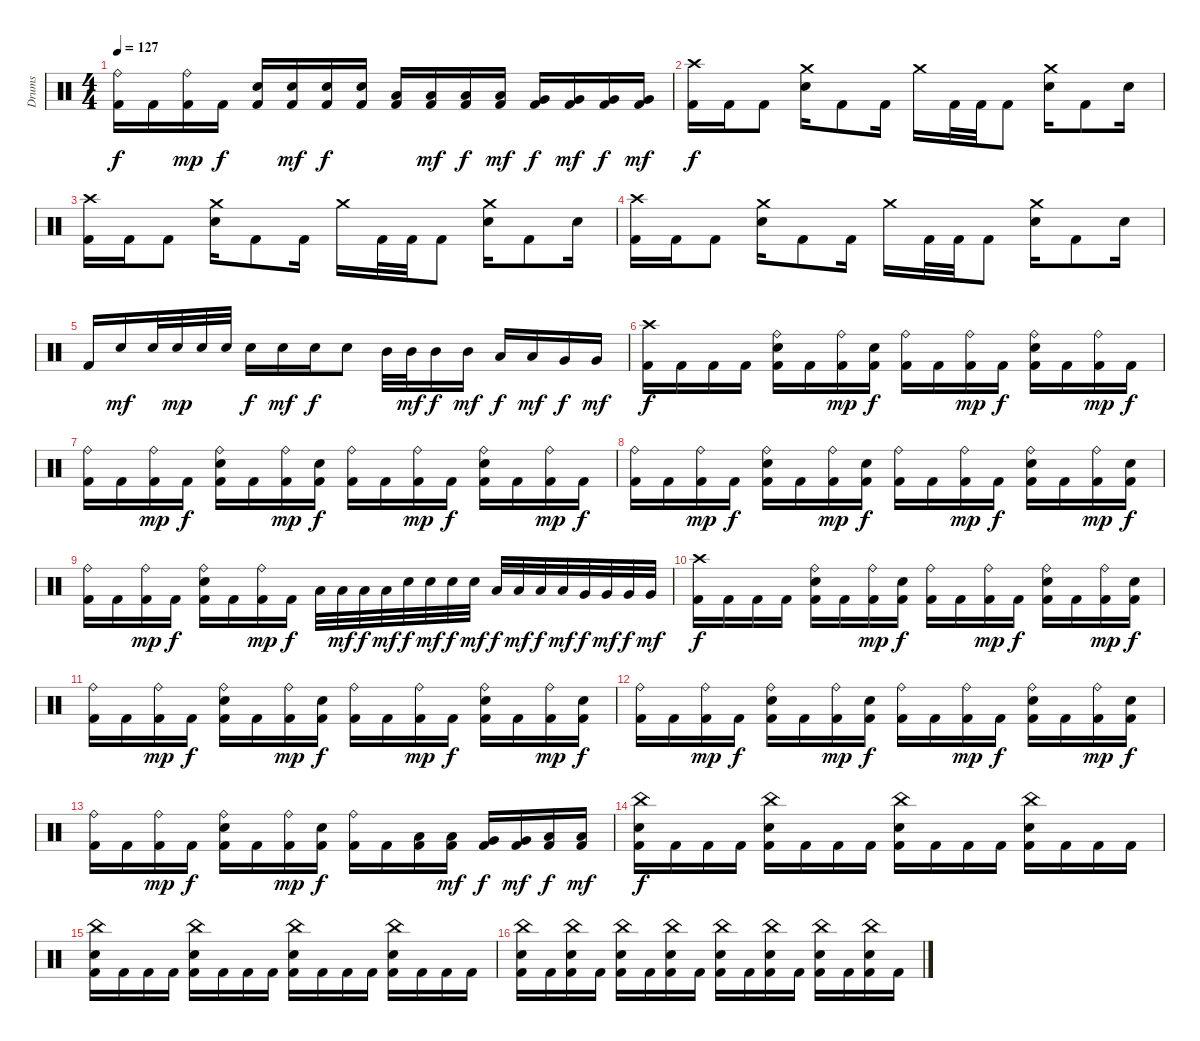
\track ("Drums" "Drums") {instrument percussion}
\staff {score}
\articulation defaults
\ts (4 4)
\tempo 127
\clef neutral
\ks c
("Kick (hit) 2" "Ride (bell)").16{dy f} "Kick (hit) 2".16 ("Kick (hit) 2" "Ride (bell)").16{dy mp} "Kick (hit) 2".16{dy f} ("Kick (hit) 2" "Electric Snare (hit)").16 ("Kick (hit) 2" "Electric Snare (hit)").16{dy mf} ("Kick (hit) 2" "Electric Snare (hit)").16{dy f} ("Kick (hit) 2" "Electric Snare (hit)").16 ("Kick (hit) 2" "Low Tom (hit)").16 ("Kick (hit) 2" "Low Tom (hit)").16{dy mf} ("Kick (hit) 2" "Low Tom (hit)").16{dy f} ("Kick (hit) 2" "Low Tom (hit)").16{dy mf} ("Kick (hit) 2" "Very Low Tom (hit)").16{dy f} ("Kick (hit) 2" "Very Low Tom (hit)").16{dy mf} ("Kick (hit) 2" "Very Low Tom (hit)").16{dy f} ("Kick (hit) 2" "Very Low Tom (hit)").16{dy mf} |
("Kick (hit) 2" "Crash high (hit)").16{dy f} "Kick (hit) 2".16 "Kick (hit) 2".8 ("Crash medium (hit)" "Electric Snare (hit)").16 "Kick (hit) 2".8 "Kick (hit) 2".16 "Crash medium (hit)".16 "Kick (hit) 2".32 "Kick (hit) 2".32 "Kick (hit) 2".8 ("Crash medium (hit)" "Electric Snare (hit)").16 "Kick (hit) 2".8 "Electric Snare (hit)".16 |
("Kick (hit) 2" "Crash high (hit)").16 "Kick (hit) 2".16 "Kick (hit) 2".8 ("Crash medium (hit)" "Electric Snare (hit)").16 "Kick (hit) 2".8 "Kick (hit) 2".16 "Crash medium (hit)".16 "Kick (hit) 2".32 "Kick (hit) 2".32 "Kick (hit) 2".8 ("Crash medium (hit)" "Electric Snare (hit)").16 "Kick (hit) 2".8 "Electric Snare (hit)".16 |
("Kick (hit) 2" "Crash high (hit)").16 "Kick (hit) 2".16 "Kick (hit) 2".8 ("Crash medium (hit)" "Electric Snare (hit)").16 "Kick (hit) 2".8 "Kick (hit) 2".16 "Crash medium (hit)".16 "Kick (hit) 2".32 "Kick (hit) 2".32 "Kick (hit) 2".8 ("Crash medium (hit)" "Electric Snare (hit)").16 "Kick (hit) 2".8 "Electric Snare (hit)".16 |
"Kick (hit) 2".16 "Electric Snare (hit)".16{dy mf} "Electric Snare (hit)".32 "Electric Snare (hit)".32{dy mp} "Electric Snare (hit)".32 "Electric Snare (hit)".32 "Electric Snare (hit)".16{dy f} "Electric Snare (hit)".16{dy mf} "Electric Snare (hit)".16{dy f} "Electric Snare (hit)".8 "Mid Tom (hit)".32 "Mid Tom (hit)".32{dy mf} "Mid Tom (hit)".16{dy f} "Mid Tom (hit)".16{dy mf} "Low Tom (hit)".16{dy f} "Low Tom (hit)".16{dy mf} "Very Low Tom (hit)".16{dy f} "Very Low Tom (hit)".16{dy mf} |
("Kick (hit) 2" "Crash high (hit)").16{dy f} "Kick (hit) 2".16 "Kick (hit) 2".16 "Kick (hit) 2".16 ("Kick (hit) 2" "Ride (bell)" "Electric Snare (hit)").16 "Kick (hit) 2".16 ("Kick (hit) 2" "Ride (bell)").16{dy mp} ("Kick (hit) 2" "Electric Snare (hit)").16{dy f} ("Kick (hit) 2" "Ride (bell)").16 "Kick (hit) 2".16 ("Kick (hit) 2" "Ride (bell)").16{dy mp} "Kick (hit) 2".16{dy f} ("Kick (hit) 2" "Ride (bell)" "Electric Snare (hit)").16 "Kick (hit) 2".16 ("Kick (hit) 2" "Ride (bell)").16{dy mp} "Kick (hit) 2".16{dy f} |
("Kick (hit) 2" "Ride (bell)").16 "Kick (hit) 2".16 ("Kick (hit) 2" "Ride (bell)").16{dy mp} "Kick (hit) 2".16{dy f} ("Kick (hit) 2" "Ride (bell)" "Electric Snare (hit)").16 "Kick (hit) 2".16 ("Kick (hit) 2" "Ride (bell)").16{dy mp} ("Kick (hit) 2" "Electric Snare (hit)").16{dy f} ("Kick (hit) 2" "Ride (bell)").16 "Kick (hit) 2".16 ("Kick (hit) 2" "Ride (bell)").16{dy mp} "Kick (hit) 2".16{dy f} ("Kick (hit) 2" "Ride (bell)" "Electric Snare (hit)").16 "Kick (hit) 2".16 ("Kick (hit) 2" "Ride (bell)").16{dy mp} "Kick (hit) 2".16{dy f} |
("Kick (hit) 2" "Ride (bell)").16 "Kick (hit) 2".16 ("Kick (hit) 2" "Ride (bell)").16{dy mp} "Kick (hit) 2".16{dy f} ("Kick (hit) 2" "Ride (bell)" "Electric Snare (hit)").16 "Kick (hit) 2".16 ("Kick (hit) 2" "Ride (bell)").16{dy mp} ("Kick (hit) 2" "Electric Snare (hit)").16{dy f} ("Kick (hit) 2" "Ride (bell)").16 "Kick (hit) 2".16 ("Kick (hit) 2" "Ride (bell)").16{dy mp} "Kick (hit) 2".16{dy f} ("Kick (hit) 2" "Ride (bell)" "Electric Snare (hit)").16 "Kick (hit) 2".16 ("Kick (hit) 2" "Ride (bell)").16{dy mp} ("Kick (hit) 2" "Electric Snare (hit)").16{dy f} |
("Kick (hit) 2" "Ride (bell)").16 "Kick (hit) 2".16 ("Kick (hit) 2" "Ride (bell)").16{dy mp} "Kick (hit) 2".16{dy f} ("Kick (hit) 2" "Ride (bell)" "Electric Snare (hit)").16 "Kick (hit) 2".16 ("Kick (hit) 2" "Ride (bell)").16{dy mp} "Kick (hit) 2".16{dy f} "Low Tom (hit)".32 "Low Tom (hit)".32{dy mf} "Low Tom (hit)".32{dy f} "Low Tom (hit)".32{dy mf} "Electric Snare (hit)".32{dy f} "Electric Snare (hit)".32{dy mf} "Electric Snare (hit)".32{dy f} "Electric Snare (hit)".32{dy mf} "Low Tom (hit)".32{dy f} "Low Tom (hit)".32{dy mf} "Low Tom (hit)".32{dy f} "Low Tom (hit)".32{dy mf} "Very Low Tom (hit)".32{dy f} "Very Low Tom (hit)".32{dy mf} "Very Low Tom (hit)".32{dy f} "Very Low Tom (hit)".32{dy mf} |
("Kick (hit) 2" "Crash high (hit)").16{dy f} "Kick (hit) 2".16 "Kick (hit) 2".16 "Kick (hit) 2".16 ("Kick (hit) 2" "Ride (bell)" "Electric Snare (hit)").16 "Kick (hit) 2".16 ("Kick (hit) 2" "Ride (bell)").16{dy mp} ("Kick (hit) 2" "Electric Snare (hit)").16{dy f} ("Kick (hit) 2" "Ride (bell)").16 "Kick (hit) 2".16 ("Kick (hit) 2" "Ride (bell)").16{dy mp} "Kick (hit) 2".16{dy f} ("Kick (hit) 2" "Ride (bell)" "Electric Snare (hit)").16 "Kick (hit) 2".16 ("Kick (hit) 2" "Ride (bell)").16{dy mp} ("Kick (hit) 2" "Electric Snare (hit)").16{dy f} |
("Kick (hit) 2" "Ride (bell)").16 "Kick (hit) 2".16 ("Kick (hit) 2" "Ride (bell)").16{dy mp} "Kick (hit) 2".16{dy f} ("Kick (hit) 2" "Ride (bell)" "Electric Snare (hit)").16 "Kick (hit) 2".16 ("Kick (hit) 2" "Ride (bell)").16{dy mp} ("Kick (hit) 2" "Electric Snare (hit)").16{dy f} ("Kick (hit) 2" "Ride (bell)").16 "Kick (hit) 2".16 ("Kick (hit) 2" "Ride (bell)").16{dy mp} "Kick (hit) 2".16{dy f} ("Kick (hit) 2" "Ride (bell)" "Electric Snare (hit)").16 "Kick (hit) 2".16 ("Kick (hit) 2" "Ride (bell)").16{dy mp} ("Kick (hit) 2" "Electric Snare (hit)").16{dy f} |
("Kick (hit) 2" "Ride (bell)").16 "Kick (hit) 2".16 ("Kick (hit) 2" "Ride (bell)").16{dy mp} "Kick (hit) 2".16{dy f} ("Kick (hit) 2" "Ride (bell)" "Electric Snare (hit)").16 "Kick (hit) 2".16 ("Kick (hit) 2" "Ride (bell)").16{dy mp} ("Kick (hit) 2" "Electric Snare (hit)").16{dy f} ("Kick (hit) 2" "Ride (bell)").16 "Kick (hit) 2".16 ("Kick (hit) 2" "Ride (bell)").16{dy mp} "Kick (hit) 2".16{dy f} ("Kick (hit) 2" "Ride (bell)" "Electric Snare (hit)").16 "Kick (hit) 2".16 ("Kick (hit) 2" "Ride (bell)").16{dy mp} ("Kick (hit) 2" "Electric Snare (hit)").16{dy f} |
("Kick (hit) 2" "Ride (bell)").16 "Kick (hit) 2".16 ("Kick (hit) 2" "Ride (bell)").16{dy mp} "Kick (hit) 2".16{dy f} ("Kick (hit) 2" "Ride (bell)" "Electric Snare (hit)").16 "Kick (hit) 2".16 ("Kick (hit) 2" "Ride (bell)").16{dy mp} ("Kick (hit) 2" "Electric Snare (hit)").16{dy f} ("Kick (hit) 2" "Ride (bell)").16 "Kick (hit) 2".16 ("Kick (hit) 2" "Low Tom (hit)").16 ("Kick (hit) 2" "Low Tom (hit)").16{dy mf} ("Kick (hit) 2" "Very Low Tom (hit)").16{dy f} ("Kick (hit) 2" "Very Low Tom (hit)").16{dy mf} ("Kick (hit) 2" "Low Floor Tom (hit)").16{dy f} ("Kick (hit) 2" "Low Floor Tom (hit)").16{dy mf} |
("Kick (hit) 2" "China (hit)" "Electric Snare (hit)").16{dy f} "Kick (hit) 2".16 "Kick (hit) 2".16 "Kick (hit) 2".16 ("Kick (hit) 2" "China (hit)" "Electric Snare (hit)").16 "Kick (hit) 2".16 "Kick (hit) 2".16 "Kick (hit) 2".16 ("Kick (hit) 2" "China (hit)" "Electric Snare (hit)").16 "Kick (hit) 2".16 "Kick (hit) 2".16 "Kick (hit) 2".16 ("Kick (hit) 2" "China (hit)" "Electric Snare (hit)").16 "Kick (hit) 2".16 "Kick (hit) 2".16 "Kick (hit) 2".16 |
("Kick (hit) 2" "China (hit)" "Electric Snare (hit)").16 "Kick (hit) 2".16 "Kick (hit) 2".16 "Kick (hit) 2".16 ("Kick (hit) 2" "China (hit)" "Electric Snare (hit)").16 "Kick (hit) 2".16 "Kick (hit) 2".16 "Kick (hit) 2".16 ("Kick (hit) 2" "China (hit)" "Electric Snare (hit)").16 "Kick (hit) 2".16 "Kick (hit) 2".16 "Kick (hit) 2".16 ("Kick (hit) 2" "China (hit)" "Electric Snare (hit)").16 "Kick (hit) 2".16 "Kick (hit) 2".16 "Kick (hit) 2".16 |
("Kick (hit) 2" "China (hit)" "Electric Snare (hit)").16 "Kick (hit) 2".16 ("Kick (hit) 2" "China (hit)" "Electric Snare (hit)").16 "Kick (hit) 2".16 ("Kick (hit) 2" "China (hit)" "Electric Snare (hit)").16 "Kick (hit) 2".16 ("Kick (hit) 2" "China (hit)" "Electric Snare (hit)").16 "Kick (hit) 2".16 ("Kick (hit) 2" "China (hit)" "Electric Snare (hit)").16 "Kick (hit) 2".16 ("Kick (hit) 2" "China (hit)" "Electric Snare (hit)").16 "Kick (hit) 2".16 ("Kick (hit) 2" "China (hit)" "Electric Snare (hit)").16 "Kick (hit) 2".16 ("Kick (hit) 2" "China (hit)" "Electric Snare (hit)").16 "Kick (hit) 2".16
